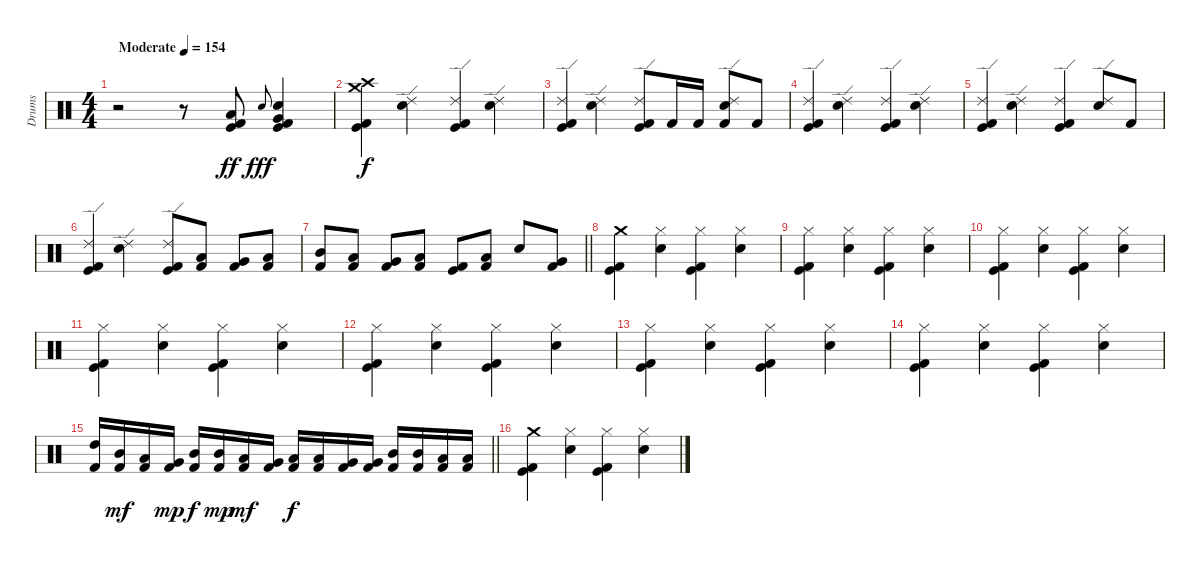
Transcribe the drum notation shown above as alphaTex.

\track ("Drums" "Drums") {instrument percussion}
\staff {score}
\articulation defaults
\ts (4 4)
\tempo (154 "Moderate")
\clef neutral
\ks c
r.2{dy ff} r.8 ("Kick (hit) 2" "Kick (hit)" "Low Floor Tom (hit)").8 "Snare (hit) 2".8{gr onbeat dy fff} ("Snare (hit) 2" "Kick (hit) 2" "Kick (hit)" "Very Low Tom (hit)").4 |
("Crash medium (hit)" "Crash high (hit)" "Kick (hit)" "Kick (hit) 2").4{dy f} ("Ride (edge) 2" "Snare (hit) 2").4 ("Ride (edge) 2" "Kick (hit)" "Kick (hit) 2").4 ("Ride (edge) 2" "Snare (hit) 2").4 |
("Ride (edge) 2" "Kick (hit)" "Kick (hit) 2").4 ("Ride (edge) 2" "Snare (hit) 2").4 ("Ride (edge) 2" "Kick (hit)" "Kick (hit) 2").8 "Kick (hit) 2".16 "Kick (hit) 2".16 ("Ride (edge) 2" "Snare (hit) 2" "Kick (hit) 2").8 "Kick (hit) 2".8 |
("Ride (edge) 2" "Kick (hit)" "Kick (hit) 2").4 ("Ride (edge) 2" "Snare (hit) 2").4 ("Ride (edge) 2" "Kick (hit)" "Kick (hit) 2").4 ("Ride (edge) 2" "Snare (hit) 2").4 |
("Ride (edge) 2" "Kick (hit)" "Kick (hit) 2").4 ("Ride (edge) 2" "Snare (hit) 2").4 ("Ride (edge) 2" "Kick (hit)" "Kick (hit) 2").4 ("Ride (edge) 2" "Snare (hit) 2").8 "Kick (hit) 2".8 |
("Ride (edge) 2" "Kick (hit)" "Kick (hit) 2").4 ("Ride (edge) 2" "Snare (hit) 2").4 ("Ride (edge) 2" "Kick (hit)" "Kick (hit) 2").8 ("Low Tom (hit)" "Kick (hit) 2").8 ("Very Low Tom (hit)" "Kick (hit) 2").8 ("Low Floor Tom (hit)" "Kick (hit) 2").8 |
\barLineRight lightlight
("Mid Tom (hit)" "Kick (hit) 2").8 ("Low Tom (hit)" "Kick (hit) 2").8 ("Very Low Tom (hit)" "Kick (hit) 2").8 ("Low Floor Tom (hit)" "Kick (hit) 2").8 ("Kick (hit)" "Kick (hit) 2").8 ("Low Floor Tom (hit)" "Kick (hit) 2").8 "Snare (hit) 2".8 ("Very Low Tom (hit)" "Kick (hit) 2").8 |
("Crash medium (hit)" "Kick (hit)" "Kick (hit) 2").4 ("Hi-Hat (closed)" "Snare (hit) 2").4 ("Hi-Hat (closed)" "Kick (hit)" "Kick (hit) 2").4 ("Hi-Hat (closed)" "Snare (hit) 2").4 |
("Hi-Hat (closed)" "Kick (hit)" "Kick (hit) 2").4 ("Hi-Hat (closed)" "Snare (hit) 2").4 ("Hi-Hat (closed)" "Kick (hit)" "Kick (hit) 2").4 ("Hi-Hat (closed)" "Snare (hit) 2").4 |
("Hi-Hat (closed)" "Kick (hit)" "Kick (hit) 2").4 ("Hi-Hat (closed)" "Snare (hit) 2").4 ("Hi-Hat (closed)" "Kick (hit)" "Kick (hit) 2").4 ("Hi-Hat (closed)" "Snare (hit) 2").4 |
("Hi-Hat (closed)" "Kick (hit)" "Kick (hit) 2").4 ("Hi-Hat (closed)" "Snare (hit) 2").4 ("Hi-Hat (closed)" "Kick (hit)" "Kick (hit) 2").4 ("Hi-Hat (closed)" "Snare (hit) 2").4 |
("Hi-Hat (closed)" "Kick (hit)" "Kick (hit) 2").4 ("Hi-Hat (closed)" "Snare (hit) 2").4 ("Hi-Hat (closed)" "Kick (hit)" "Kick (hit) 2").4 ("Hi-Hat (closed)" "Snare (hit) 2").4 |
("Hi-Hat (closed)" "Kick (hit)" "Kick (hit) 2").4 ("Hi-Hat (closed)" "Snare (hit) 2").4 ("Hi-Hat (closed)" "Kick (hit)" "Kick (hit) 2").4 ("Hi-Hat (closed)" "Snare (hit) 2").4 |
("Hi-Hat (closed)" "Kick (hit)" "Kick (hit) 2").4 ("Hi-Hat (closed)" "Snare (hit) 2").4 ("Hi-Hat (closed)" "Kick (hit)" "Kick (hit) 2").4 ("Hi-Hat (closed)" "Snare (hit) 2").4 |
\barLineRight lightlight
("High Tom (hit)" "Kick (hit) 2").16 ("Mid Tom (hit)" "Kick (hit) 2").16{dy mf} ("Low Tom (hit)" "Kick (hit) 2").16 ("Very Low Tom (hit)" "Kick (hit) 2").16{dy mp} ("Mid Tom (hit)" "Kick (hit) 2").16{dy f} ("Mid Tom (hit)" "Kick (hit) 2").16{dy mp} ("Low Tom (hit)" "Kick (hit) 2").16{dy mf} ("Very Low Tom (hit)" "Kick (hit) 2").16 ("Low Tom (hit)" "Kick (hit) 2").16{dy f} ("Low Tom (hit)" "Kick (hit) 2").16 ("Very Low Tom (hit)" "Kick (hit) 2").16 ("Very Low Tom (hit)" "Kick (hit) 2").16 ("Mid Tom (hit)" "Kick (hit) 2").16 ("Mid Tom (hit)" "Kick (hit) 2").16 ("Low Tom (hit)" "Kick (hit) 2").16 ("Low Tom (hit)" "Kick (hit) 2").16 |
("Crash medium (hit)" "Kick (hit)" "Kick (hit) 2").4 ("Hi-Hat (closed)" "Snare (hit) 2").4 ("Hi-Hat (closed)" "Kick (hit)" "Kick (hit) 2").4 ("Hi-Hat (closed)" "Snare (hit) 2").4
